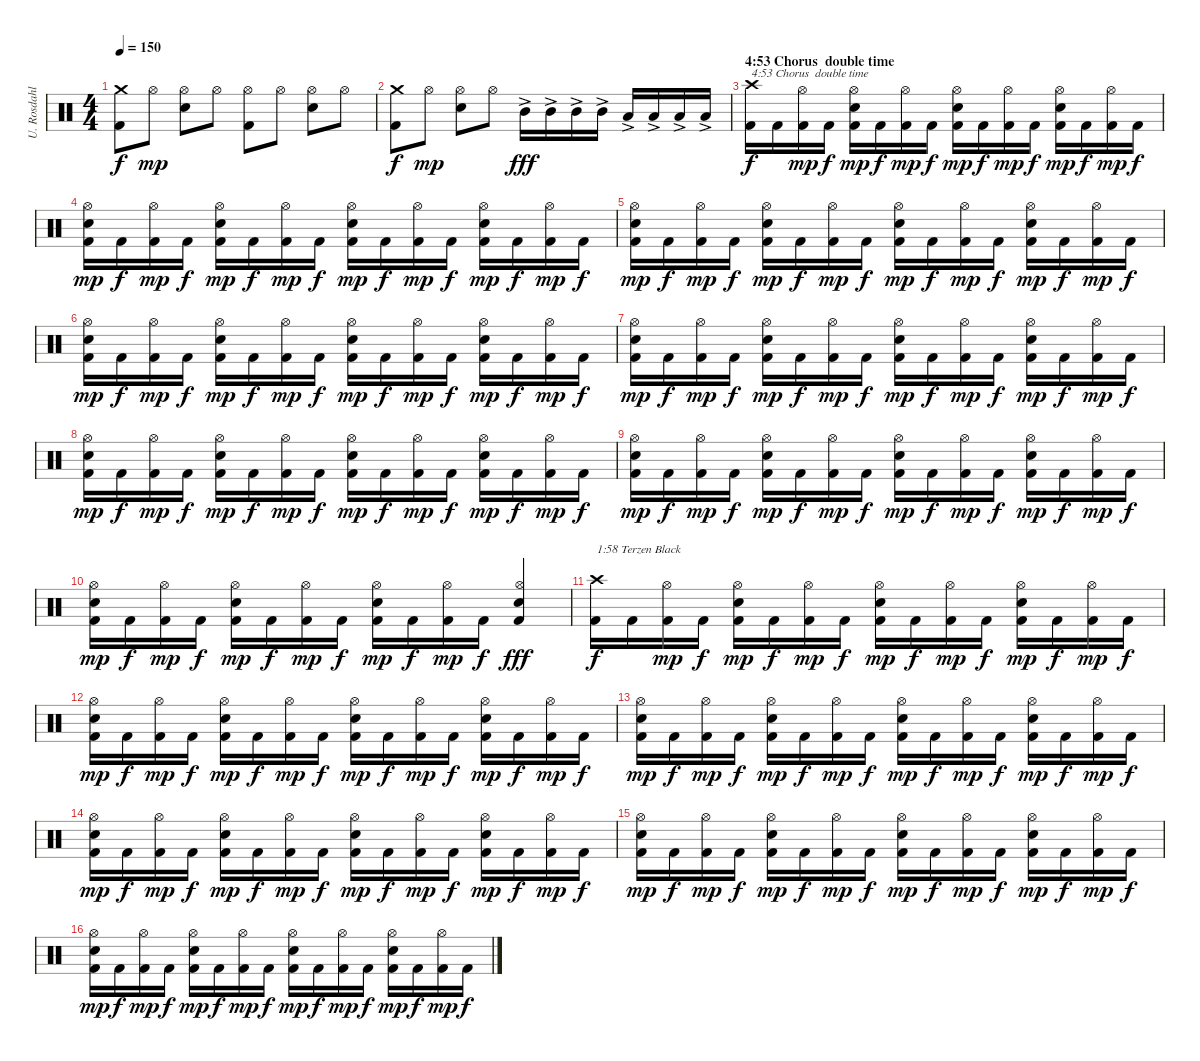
\track ("U. Rosdahl" "U. Rosdahl") {instrument percussion}
\staff {score}
\articulation defaults
\ts (4 4)
\tempo 150
\clef neutral
\ks c
("Kick (hit) 2" "Crash medium (hit)").8{dy f} "Hi-Hat (open)".8{dy mp} ("Electric Snare (hit)" "Hi-Hat (open)").8 "Hi-Hat (open)".8 ("Kick (hit) 2" "Hi-Hat (open)").8 "Hi-Hat (open)".8 ("Electric Snare (hit)" "Hi-Hat (open)").8 "Hi-Hat (open)".8 |
("Kick (hit) 2" "Crash medium (hit)").8{dy f} "Hi-Hat (open)".8{dy mp} ("Electric Snare (hit)" "Hi-Hat (open)").8 "Hi-Hat (open)".8 "Mid Tom (hit)"{ac}.16{dy fff} "Mid Tom (hit)"{ac}.16 "Mid Tom (hit)"{ac}.16 "Mid Tom (hit)"{ac}.16 "Low Tom (hit)"{ac}.16 "Low Tom (hit)"{ac}.16 "Low Tom (hit)"{ac}.16 "Low Tom (hit)"{ac}.16 |
\section ("" "4:53 Chorus  double time")
("Kick (hit) 2" "Crash high (hit)").16{txt "4:53 Chorus  double time" dy f} "Kick (hit) 2".16 ("Kick (hit) 2" "Hi-Hat (open)").16{dy mp} "Kick (hit) 2".16{dy f} ("Kick (hit) 2" "Electric Snare (hit)" "Hi-Hat (open)").16{dy mp} "Kick (hit) 2".16{dy f} ("Kick (hit) 2" "Hi-Hat (open)").16{dy mp} "Kick (hit) 2".16{dy f} ("Kick (hit) 2" "Electric Snare (hit)" "Hi-Hat (open)").16{dy mp} "Kick (hit) 2".16{dy f} ("Kick (hit) 2" "Hi-Hat (open)").16{dy mp} "Kick (hit) 2".16{dy f} ("Kick (hit) 2" "Electric Snare (hit)" "Hi-Hat (open)").16{dy mp} "Kick (hit) 2".16{dy f} ("Kick (hit) 2" "Hi-Hat (open)").16{dy mp} "Kick (hit) 2".16{dy f} |
("Kick (hit) 2" "Electric Snare (hit)" "Hi-Hat (open)").16{dy mp} "Kick (hit) 2".16{dy f} ("Kick (hit) 2" "Hi-Hat (open)").16{dy mp} "Kick (hit) 2".16{dy f} ("Kick (hit) 2" "Electric Snare (hit)" "Hi-Hat (open)").16{dy mp} "Kick (hit) 2".16{dy f} ("Kick (hit) 2" "Hi-Hat (open)").16{dy mp} "Kick (hit) 2".16{dy f} ("Kick (hit) 2" "Electric Snare (hit)" "Hi-Hat (open)").16{dy mp} "Kick (hit) 2".16{dy f} ("Kick (hit) 2" "Hi-Hat (open)").16{dy mp} "Kick (hit) 2".16{dy f} ("Kick (hit) 2" "Electric Snare (hit)" "Hi-Hat (open)").16{dy mp} "Kick (hit) 2".16{dy f} ("Kick (hit) 2" "Hi-Hat (open)").16{dy mp} "Kick (hit) 2".16{dy f} |
("Kick (hit) 2" "Electric Snare (hit)" "Hi-Hat (open)").16{dy mp} "Kick (hit) 2".16{dy f} ("Kick (hit) 2" "Hi-Hat (open)").16{dy mp} "Kick (hit) 2".16{dy f} ("Kick (hit) 2" "Electric Snare (hit)" "Hi-Hat (open)").16{dy mp} "Kick (hit) 2".16{dy f} ("Kick (hit) 2" "Hi-Hat (open)").16{dy mp} "Kick (hit) 2".16{dy f} ("Kick (hit) 2" "Electric Snare (hit)" "Hi-Hat (open)").16{dy mp} "Kick (hit) 2".16{dy f} ("Kick (hit) 2" "Hi-Hat (open)").16{dy mp} "Kick (hit) 2".16{dy f} ("Kick (hit) 2" "Electric Snare (hit)" "Hi-Hat (open)").16{dy mp} "Kick (hit) 2".16{dy f} ("Kick (hit) 2" "Hi-Hat (open)").16{dy mp} "Kick (hit) 2".16{dy f} |
("Kick (hit) 2" "Electric Snare (hit)" "Hi-Hat (open)").16{dy mp} "Kick (hit) 2".16{dy f} ("Kick (hit) 2" "Hi-Hat (open)").16{dy mp} "Kick (hit) 2".16{dy f} ("Kick (hit) 2" "Electric Snare (hit)" "Hi-Hat (open)").16{dy mp} "Kick (hit) 2".16{dy f} ("Kick (hit) 2" "Hi-Hat (open)").16{dy mp} "Kick (hit) 2".16{dy f} ("Kick (hit) 2" "Electric Snare (hit)" "Hi-Hat (open)").16{dy mp} "Kick (hit) 2".16{dy f} ("Kick (hit) 2" "Hi-Hat (open)").16{dy mp} "Kick (hit) 2".16{dy f} ("Kick (hit) 2" "Electric Snare (hit)" "Hi-Hat (open)").16{dy mp} "Kick (hit) 2".16{dy f} ("Kick (hit) 2" "Hi-Hat (open)").16{dy mp} "Kick (hit) 2".16{dy f} |
("Kick (hit) 2" "Electric Snare (hit)" "Hi-Hat (open)").16{dy mp} "Kick (hit) 2".16{dy f} ("Kick (hit) 2" "Hi-Hat (open)").16{dy mp} "Kick (hit) 2".16{dy f} ("Kick (hit) 2" "Electric Snare (hit)" "Hi-Hat (open)").16{dy mp} "Kick (hit) 2".16{dy f} ("Kick (hit) 2" "Hi-Hat (open)").16{dy mp} "Kick (hit) 2".16{dy f} ("Kick (hit) 2" "Electric Snare (hit)" "Hi-Hat (open)").16{dy mp} "Kick (hit) 2".16{dy f} ("Kick (hit) 2" "Hi-Hat (open)").16{dy mp} "Kick (hit) 2".16{dy f} ("Kick (hit) 2" "Electric Snare (hit)" "Hi-Hat (open)").16{dy mp} "Kick (hit) 2".16{dy f} ("Kick (hit) 2" "Hi-Hat (open)").16{dy mp} "Kick (hit) 2".16{dy f} |
("Kick (hit) 2" "Electric Snare (hit)" "Hi-Hat (open)").16{dy mp} "Kick (hit) 2".16{dy f} ("Kick (hit) 2" "Hi-Hat (open)").16{dy mp} "Kick (hit) 2".16{dy f} ("Kick (hit) 2" "Electric Snare (hit)" "Hi-Hat (open)").16{dy mp} "Kick (hit) 2".16{dy f} ("Kick (hit) 2" "Hi-Hat (open)").16{dy mp} "Kick (hit) 2".16{dy f} ("Kick (hit) 2" "Electric Snare (hit)" "Hi-Hat (open)").16{dy mp} "Kick (hit) 2".16{dy f} ("Kick (hit) 2" "Hi-Hat (open)").16{dy mp} "Kick (hit) 2".16{dy f} ("Kick (hit) 2" "Electric Snare (hit)" "Hi-Hat (open)").16{dy mp} "Kick (hit) 2".16{dy f} ("Kick (hit) 2" "Hi-Hat (open)").16{dy mp} "Kick (hit) 2".16{dy f} |
("Kick (hit) 2" "Electric Snare (hit)" "Hi-Hat (open)").16{dy mp} "Kick (hit) 2".16{dy f} ("Kick (hit) 2" "Hi-Hat (open)").16{dy mp} "Kick (hit) 2".16{dy f} ("Kick (hit) 2" "Electric Snare (hit)" "Hi-Hat (open)").16{dy mp} "Kick (hit) 2".16{dy f} ("Kick (hit) 2" "Hi-Hat (open)").16{dy mp} "Kick (hit) 2".16{dy f} ("Kick (hit) 2" "Electric Snare (hit)" "Hi-Hat (open)").16{dy mp} "Kick (hit) 2".16{dy f} ("Kick (hit) 2" "Hi-Hat (open)").16{dy mp} "Kick (hit) 2".16{dy f} ("Kick (hit) 2" "Electric Snare (hit)" "Hi-Hat (open)").16{dy mp} "Kick (hit) 2".16{dy f} ("Kick (hit) 2" "Hi-Hat (open)").16{dy mp} "Kick (hit) 2".16{dy f} |
("Kick (hit) 2" "Electric Snare (hit)" "Hi-Hat (open)").16{dy mp} "Kick (hit) 2".16{dy f} ("Kick (hit) 2" "Hi-Hat (open)").16{dy mp} "Kick (hit) 2".16{dy f} ("Kick (hit) 2" "Electric Snare (hit)" "Hi-Hat (open)").16{dy mp} "Kick (hit) 2".16{dy f} ("Kick (hit) 2" "Hi-Hat (open)").16{dy mp} "Kick (hit) 2".16{dy f} ("Kick (hit) 2" "Electric Snare (hit)" "Hi-Hat (open)").16{dy mp} "Kick (hit) 2".16{dy f} ("Kick (hit) 2" "Hi-Hat (open)").16{dy mp} "Kick (hit) 2".16{dy f} ("Kick (hit) 2" "Electric Snare (hit)" "Hi-Hat (open)").4{dy fff} |
("Kick (hit) 2" "Crash high (hit)").16{txt "1:58 Terzen Black" dy f} "Kick (hit) 2".16 ("Kick (hit) 2" "Hi-Hat (open)").16{dy mp} "Kick (hit) 2".16{dy f} ("Kick (hit) 2" "Electric Snare (hit)" "Hi-Hat (open)").16{dy mp} "Kick (hit) 2".16{dy f} ("Kick (hit) 2" "Hi-Hat (open)").16{dy mp} "Kick (hit) 2".16{dy f} ("Kick (hit) 2" "Electric Snare (hit)" "Hi-Hat (open)").16{dy mp} "Kick (hit) 2".16{dy f} ("Kick (hit) 2" "Hi-Hat (open)").16{dy mp} "Kick (hit) 2".16{dy f} ("Kick (hit) 2" "Electric Snare (hit)" "Hi-Hat (open)").16{dy mp} "Kick (hit) 2".16{dy f} ("Kick (hit) 2" "Hi-Hat (open)").16{dy mp} "Kick (hit) 2".16{dy f} |
("Kick (hit) 2" "Electric Snare (hit)" "Hi-Hat (open)").16{dy mp} "Kick (hit) 2".16{dy f} ("Kick (hit) 2" "Hi-Hat (open)").16{dy mp} "Kick (hit) 2".16{dy f} ("Kick (hit) 2" "Electric Snare (hit)" "Hi-Hat (open)").16{dy mp} "Kick (hit) 2".16{dy f} ("Kick (hit) 2" "Hi-Hat (open)").16{dy mp} "Kick (hit) 2".16{dy f} ("Kick (hit) 2" "Electric Snare (hit)" "Hi-Hat (open)").16{dy mp} "Kick (hit) 2".16{dy f} ("Kick (hit) 2" "Hi-Hat (open)").16{dy mp} "Kick (hit) 2".16{dy f} ("Kick (hit) 2" "Electric Snare (hit)" "Hi-Hat (open)").16{dy mp} "Kick (hit) 2".16{dy f} ("Kick (hit) 2" "Hi-Hat (open)").16{dy mp} "Kick (hit) 2".16{dy f} |
("Kick (hit) 2" "Electric Snare (hit)" "Hi-Hat (open)").16{dy mp} "Kick (hit) 2".16{dy f} ("Kick (hit) 2" "Hi-Hat (open)").16{dy mp} "Kick (hit) 2".16{dy f} ("Kick (hit) 2" "Electric Snare (hit)" "Hi-Hat (open)").16{dy mp} "Kick (hit) 2".16{dy f} ("Kick (hit) 2" "Hi-Hat (open)").16{dy mp} "Kick (hit) 2".16{dy f} ("Kick (hit) 2" "Electric Snare (hit)" "Hi-Hat (open)").16{dy mp} "Kick (hit) 2".16{dy f} ("Kick (hit) 2" "Hi-Hat (open)").16{dy mp} "Kick (hit) 2".16{dy f} ("Kick (hit) 2" "Electric Snare (hit)" "Hi-Hat (open)").16{dy mp} "Kick (hit) 2".16{dy f} ("Kick (hit) 2" "Hi-Hat (open)").16{dy mp} "Kick (hit) 2".16{dy f} |
("Kick (hit) 2" "Electric Snare (hit)" "Hi-Hat (open)").16{dy mp} "Kick (hit) 2".16{dy f} ("Kick (hit) 2" "Hi-Hat (open)").16{dy mp} "Kick (hit) 2".16{dy f} ("Kick (hit) 2" "Electric Snare (hit)" "Hi-Hat (open)").16{dy mp} "Kick (hit) 2".16{dy f} ("Kick (hit) 2" "Hi-Hat (open)").16{dy mp} "Kick (hit) 2".16{dy f} ("Kick (hit) 2" "Electric Snare (hit)" "Hi-Hat (open)").16{dy mp} "Kick (hit) 2".16{dy f} ("Kick (hit) 2" "Hi-Hat (open)").16{dy mp} "Kick (hit) 2".16{dy f} ("Kick (hit) 2" "Electric Snare (hit)" "Hi-Hat (open)").16{dy mp} "Kick (hit) 2".16{dy f} ("Kick (hit) 2" "Hi-Hat (open)").16{dy mp} "Kick (hit) 2".16{dy f} |
("Kick (hit) 2" "Electric Snare (hit)" "Hi-Hat (open)").16{dy mp} "Kick (hit) 2".16{dy f} ("Kick (hit) 2" "Hi-Hat (open)").16{dy mp} "Kick (hit) 2".16{dy f} ("Kick (hit) 2" "Electric Snare (hit)" "Hi-Hat (open)").16{dy mp} "Kick (hit) 2".16{dy f} ("Kick (hit) 2" "Hi-Hat (open)").16{dy mp} "Kick (hit) 2".16{dy f} ("Kick (hit) 2" "Electric Snare (hit)" "Hi-Hat (open)").16{dy mp} "Kick (hit) 2".16{dy f} ("Kick (hit) 2" "Hi-Hat (open)").16{dy mp} "Kick (hit) 2".16{dy f} ("Kick (hit) 2" "Electric Snare (hit)" "Hi-Hat (open)").16{dy mp} "Kick (hit) 2".16{dy f} ("Kick (hit) 2" "Hi-Hat (open)").16{dy mp} "Kick (hit) 2".16{dy f} |
("Kick (hit) 2" "Electric Snare (hit)" "Hi-Hat (open)").16{dy mp} "Kick (hit) 2".16{dy f} ("Kick (hit) 2" "Hi-Hat (open)").16{dy mp} "Kick (hit) 2".16{dy f} ("Kick (hit) 2" "Electric Snare (hit)" "Hi-Hat (open)").16{dy mp} "Kick (hit) 2".16{dy f} ("Kick (hit) 2" "Hi-Hat (open)").16{dy mp} "Kick (hit) 2".16{dy f} ("Kick (hit) 2" "Electric Snare (hit)" "Hi-Hat (open)").16{dy mp} "Kick (hit) 2".16{dy f} ("Kick (hit) 2" "Hi-Hat (open)").16{dy mp} "Kick (hit) 2".16{dy f} ("Kick (hit) 2" "Electric Snare (hit)" "Hi-Hat (open)").16{dy mp} "Kick (hit) 2".16{dy f} ("Kick (hit) 2" "Hi-Hat (open)").16{dy mp} "Kick (hit) 2".16{dy f}
